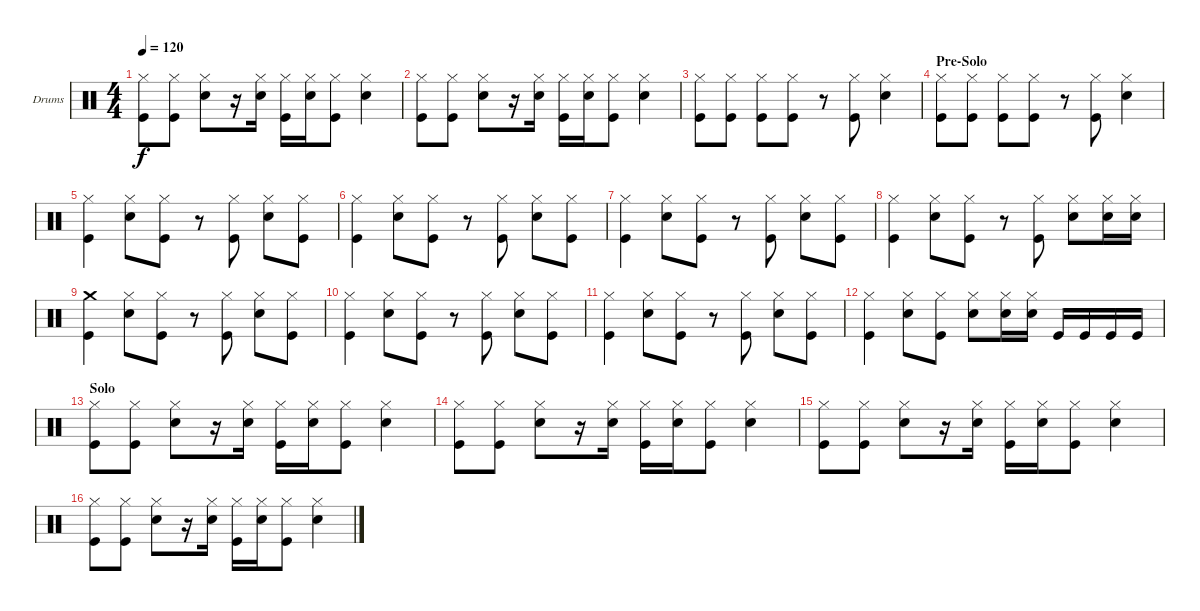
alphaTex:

\defaultSystemsLayout 4
\bracketExtendMode groupsimilarinstruments
\firstSystemTrackNameOrientation horizontal
\otherSystemsTrackNameOrientation horizontal
\track ("Drum" "Drums") {instrument percussion}
\staff {score}
\articulation defaults
\ts (4 4)
\tempo 120
\clef neutral
\ks c
("Hi-Hat (closed)" "Kick (hit)").8{dy f} ("Hi-Hat (closed)" "Kick (hit)").8 ("Hi-Hat (closed)" "Snare (hit) 2").8 r.16 ("Hi-Hat (closed)" "Snare (hit) 2").16 ("Hi-Hat (closed)" "Kick (hit)").16 ("Hi-Hat (closed)" "Snare (hit) 2").16 ("Hi-Hat (closed)" "Kick (hit)").8 ("Hi-Hat (closed)" "Snare (hit) 2").4 |
("Hi-Hat (closed)" "Kick (hit)").8 ("Hi-Hat (closed)" "Kick (hit)").8 ("Hi-Hat (closed)" "Snare (hit) 2").8 r.16 ("Hi-Hat (closed)" "Snare (hit) 2").16 ("Hi-Hat (closed)" "Kick (hit)").16 ("Hi-Hat (closed)" "Snare (hit) 2").16 ("Hi-Hat (closed)" "Kick (hit)").8 ("Hi-Hat (closed)" "Snare (hit) 2").4 |
("Hi-Hat (closed)" "Kick (hit)").8 ("Hi-Hat (closed)" "Kick (hit)").8 ("Hi-Hat (closed)" "Kick (hit)").8 ("Hi-Hat (closed)" "Kick (hit)").8 r.8 ("Hi-Hat (closed)" "Kick (hit)").8 ("Hi-Hat (closed)" "Snare (hit) 2").4 |
\section ("" "Pre-Solo")
("Hi-Hat (closed)" "Kick (hit)").8 ("Hi-Hat (closed)" "Kick (hit)").8 ("Hi-Hat (closed)" "Kick (hit)").8 ("Hi-Hat (closed)" "Kick (hit)").8 r.8 ("Hi-Hat (closed)" "Kick (hit)").8 ("Hi-Hat (closed)" "Snare (hit) 2").4 |
("Hi-Hat (closed)" "Kick (hit)").4 ("Hi-Hat (closed)" "Snare (hit) 2").8 ("Hi-Hat (closed)" "Kick (hit)").8 r.8 ("Hi-Hat (closed)" "Kick (hit)").8 ("Hi-Hat (closed)" "Snare (hit) 2").8 ("Hi-Hat (closed)" "Kick (hit)").8 |
("Hi-Hat (closed)" "Kick (hit)").4 ("Hi-Hat (closed)" "Snare (hit) 2").8 ("Hi-Hat (closed)" "Kick (hit)").8 r.8 ("Hi-Hat (closed)" "Kick (hit)").8 ("Hi-Hat (closed)" "Snare (hit) 2").8 ("Hi-Hat (closed)" "Kick (hit)").8 |
("Hi-Hat (closed)" "Kick (hit)").4 ("Hi-Hat (closed)" "Snare (hit) 2").8 ("Hi-Hat (closed)" "Kick (hit)").8 r.8 ("Hi-Hat (closed)" "Kick (hit)").8 ("Hi-Hat (closed)" "Snare (hit) 2").8 ("Hi-Hat (closed)" "Kick (hit)").8 |
("Hi-Hat (closed)" "Kick (hit)").4 ("Hi-Hat (closed)" "Snare (hit) 2").8 ("Hi-Hat (closed)" "Kick (hit)").8 r.8 ("Hi-Hat (closed)" "Kick (hit)").8 ("Hi-Hat (closed)" "Snare (hit) 2").8 ("Hi-Hat (closed)" "Snare (hit) 2").16 ("Hi-Hat (closed)" "Snare (hit) 2").16 |
("Crash medium (hit)" "Kick (hit)").4 ("Hi-Hat (closed)" "Snare (hit) 2").8 ("Hi-Hat (closed)" "Kick (hit)").8 r.8 ("Hi-Hat (closed)" "Kick (hit)").8 ("Hi-Hat (closed)" "Snare (hit) 2").8 ("Hi-Hat (closed)" "Kick (hit)").8 |
("Hi-Hat (closed)" "Kick (hit)").4 ("Hi-Hat (closed)" "Snare (hit) 2").8 ("Hi-Hat (closed)" "Kick (hit)").8 r.8 ("Hi-Hat (closed)" "Kick (hit)").8 ("Hi-Hat (closed)" "Snare (hit) 2").8 ("Hi-Hat (closed)" "Kick (hit)").8 |
("Hi-Hat (closed)" "Kick (hit)").4 ("Hi-Hat (closed)" "Snare (hit) 2").8 ("Hi-Hat (closed)" "Kick (hit)").8 r.8 ("Hi-Hat (closed)" "Kick (hit)").8 ("Hi-Hat (closed)" "Snare (hit) 2").8 ("Hi-Hat (closed)" "Kick (hit)").8 |
("Hi-Hat (closed)" "Kick (hit)").4 ("Hi-Hat (closed)" "Snare (hit) 2").8 ("Hi-Hat (closed)" "Kick (hit)").8 ("Hi-Hat (closed)" "Snare (hit) 2").8 ("Hi-Hat (closed)" "Snare (hit) 2").16 ("Hi-Hat (closed)" "Snare (hit) 2").16 "Kick (hit)".16 "Kick (hit)".16 "Kick (hit)".16 "Kick (hit)".16 |
\section ("" "Solo")
("Hi-Hat (closed)" "Kick (hit)").8 ("Hi-Hat (closed)" "Kick (hit)").8 ("Hi-Hat (closed)" "Snare (hit) 2").8 r.16 ("Hi-Hat (closed)" "Snare (hit) 2").16 ("Hi-Hat (closed)" "Kick (hit)").16 ("Hi-Hat (closed)" "Snare (hit) 2").16 ("Hi-Hat (closed)" "Kick (hit)").8 ("Hi-Hat (closed)" "Snare (hit) 2").4 |
("Hi-Hat (closed)" "Kick (hit)").8 ("Hi-Hat (closed)" "Kick (hit)").8 ("Hi-Hat (closed)" "Snare (hit) 2").8 r.16 ("Hi-Hat (closed)" "Snare (hit) 2").16 ("Hi-Hat (closed)" "Kick (hit)").16 ("Hi-Hat (closed)" "Snare (hit) 2").16 ("Hi-Hat (closed)" "Kick (hit)").8 ("Hi-Hat (closed)" "Snare (hit) 2").4 |
("Hi-Hat (closed)" "Kick (hit)").8 ("Hi-Hat (closed)" "Kick (hit)").8 ("Hi-Hat (closed)" "Snare (hit) 2").8 r.16 ("Hi-Hat (closed)" "Snare (hit) 2").16 ("Hi-Hat (closed)" "Kick (hit)").16 ("Hi-Hat (closed)" "Snare (hit) 2").16 ("Hi-Hat (closed)" "Kick (hit)").8 ("Hi-Hat (closed)" "Snare (hit) 2").4 |
("Hi-Hat (closed)" "Kick (hit)").8 ("Hi-Hat (closed)" "Kick (hit)").8 ("Hi-Hat (closed)" "Snare (hit) 2").8 r.16 ("Hi-Hat (closed)" "Snare (hit) 2").16 ("Hi-Hat (closed)" "Kick (hit)").16 ("Hi-Hat (closed)" "Snare (hit) 2").16 ("Hi-Hat (closed)" "Kick (hit)").8 ("Hi-Hat (closed)" "Snare (hit) 2").4
